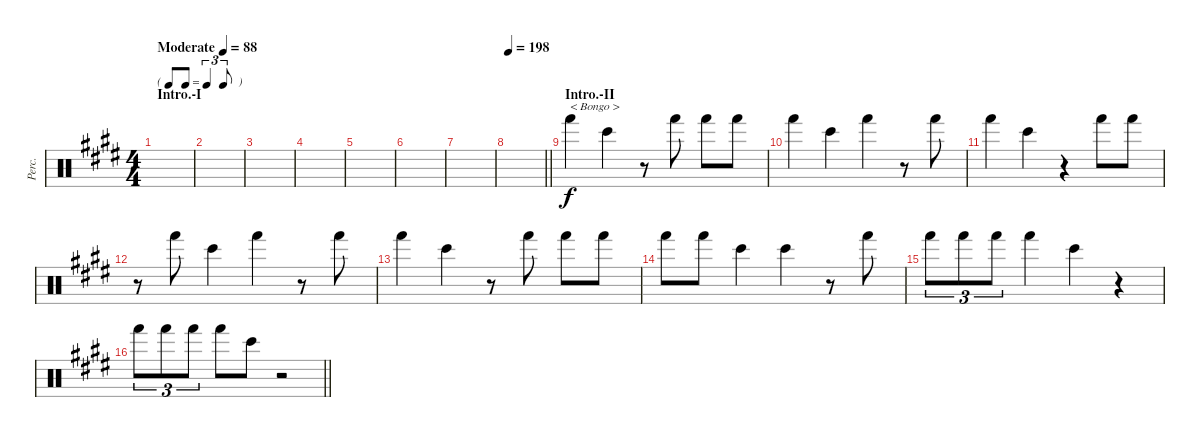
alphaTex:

\track ("Perc." "Perc.") {instrument percussion}
\staff {score}
\articulation defaults
\ts (4 4)
\tf triplet8th
\section ("" "Intro.-I")
\tempo (88 "Moderate")
\clef neutral
\ks e
|
|
|
|
|
|
|
\tempo 198
\barLineRight lightlight
|
\section ("" "Intro.-II")
"Hand (hit)".4{txt "< Bongo >"} "Bongo High (hit)".4 r.8 "Hand (hit)".8 "Hand (hit)".8 "Hand (hit)".8 |
"Hand (hit)".4 "Bongo High (hit)".4 "Hand (hit)".4 r.8 "Hand (hit)".8 |
"Hand (hit)".4 "Bongo High (hit)".4 r.4 "Hand (hit)".8 "Hand (hit)".8 |
r.8 "Hand (hit)".8 "Bongo High (hit)".4 "Hand (hit)".4 r.8 "Hand (hit)".8 |
"Hand (hit)".4 "Bongo High (hit)".4 r.8 "Hand (hit)".8 "Hand (hit)".8 "Hand (hit)".8 |
"Hand (hit)".8 "Hand (hit)".8 "Bongo High (hit)".4 "Bongo High (hit)".4 r.8 "Hand (hit)".8 |
"Hand (hit)".8{tu (3 2)} "Hand (hit)".8{tu (3 2)} "Hand (hit)".8{tu (3 2)} "Hand (hit)".4 "Bongo High (hit)".4 r.4 |
\barLineRight lightlight "Hand (hit)".8{tu (3 2)} "Hand (hit)".8{tu (3 2)} "Hand (hit)".8{tu (3 2)} "Hand (hit)".8 "Bongo High (hit)".8
r.2
